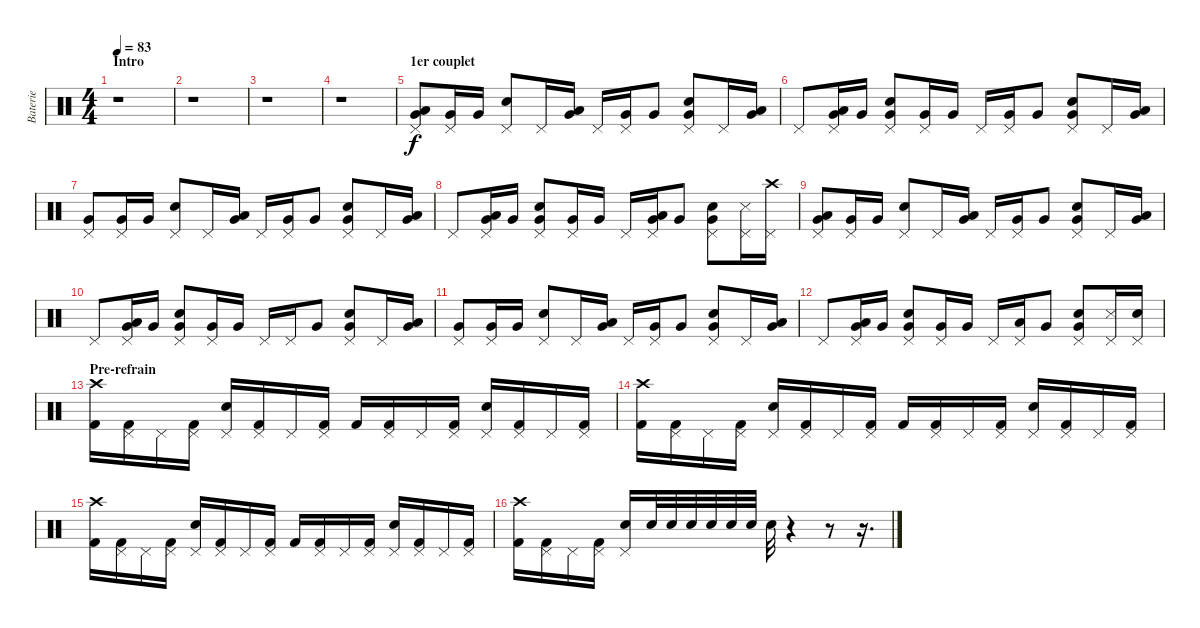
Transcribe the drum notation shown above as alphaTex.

\track ("Baterie" "Baterie") {instrument percussion}
\staff {score}
\articulation defaults
\ts (4 4)
\section ("" "Intro")
\tempo 83
\clef neutral
\ks c
r.1{dy f} |
r.1 |
r.1 |
r.1 |
\section ("" "1er couplet")
("Low Floor Tom (hit)" "Very Low Tom (hit)" "Pedal Hi-Hat (hit)").8 ("Very Low Tom (hit)" "Pedal Hi-Hat (hit)").16 "Very Low Tom (hit)".16 ("Snare (hit) 2" "Pedal Hi-Hat (hit)").8 "Pedal Hi-Hat (hit)".16 ("Low Floor Tom (hit)" "Very Low Tom (hit)").16 "Pedal Hi-Hat (hit)".16 ("Very Low Tom (hit)" "Pedal Hi-Hat (hit)").16 "Very Low Tom (hit)".8 ("Snare (hit) 2" "Very Low Tom (hit)" "Pedal Hi-Hat (hit)").8 "Pedal Hi-Hat (hit)".16 ("Low Floor Tom (hit)" "Very Low Tom (hit)").16 |
"Pedal Hi-Hat (hit)".8 ("Low Floor Tom (hit)" "Very Low Tom (hit)" "Pedal Hi-Hat (hit)").16 "Very Low Tom (hit)".16 ("Snare (hit) 2" "Very Low Tom (hit)" "Pedal Hi-Hat (hit)").8 ("Very Low Tom (hit)" "Pedal Hi-Hat (hit)").16 "Very Low Tom (hit)".16 "Pedal Hi-Hat (hit)".16 ("Very Low Tom (hit)" "Pedal Hi-Hat (hit)").16 "Very Low Tom (hit)".8 ("Snare (hit) 2" "Very Low Tom (hit)" "Pedal Hi-Hat (hit)").8 "Pedal Hi-Hat (hit)".16 ("Low Floor Tom (hit)" "Very Low Tom (hit)").16 |
("Very Low Tom (hit)" "Pedal Hi-Hat (hit)").8 ("Very Low Tom (hit)" "Pedal Hi-Hat (hit)").16 "Very Low Tom (hit)".16 ("Snare (hit) 2" "Pedal Hi-Hat (hit)").8 "Pedal Hi-Hat (hit)".16 ("Low Floor Tom (hit)" "Very Low Tom (hit)").16 "Pedal Hi-Hat (hit)".16 ("Very Low Tom (hit)" "Pedal Hi-Hat (hit)").16 "Very Low Tom (hit)".8 ("Snare (hit) 2" "Very Low Tom (hit)" "Pedal Hi-Hat (hit)").8 "Pedal Hi-Hat (hit)".16 ("Low Floor Tom (hit)" "Very Low Tom (hit)").16 |
"Pedal Hi-Hat (hit)".8 ("Low Floor Tom (hit)" "Very Low Tom (hit)" "Pedal Hi-Hat (hit)").16 "Very Low Tom (hit)".16 ("Snare (hit) 2" "Very Low Tom (hit)" "Pedal Hi-Hat (hit)").8 ("Very Low Tom (hit)" "Pedal Hi-Hat (hit)").16 "Very Low Tom (hit)".16 "Pedal Hi-Hat (hit)".16 ("Low Floor Tom (hit)" "Very Low Tom (hit)" "Pedal Hi-Hat (hit)").16 "Very Low Tom (hit)".8 ("Snare (hit) 2" "Very Low Tom (hit)" "Pedal Hi-Hat (hit)").8 ("Snare (side stick) 3" "Pedal Hi-Hat (hit)").16 ("Crash high (hit)" "Pedal Hi-Hat (hit)").16 |
("Low Floor Tom (hit)" "Very Low Tom (hit)" "Pedal Hi-Hat (hit)").8 ("Very Low Tom (hit)" "Pedal Hi-Hat (hit)").16 "Very Low Tom (hit)".16 ("Snare (hit) 2" "Pedal Hi-Hat (hit)").8 "Pedal Hi-Hat (hit)".16 ("Low Floor Tom (hit)" "Very Low Tom (hit)").16 "Pedal Hi-Hat (hit)".16 ("Very Low Tom (hit)" "Pedal Hi-Hat (hit)").16 "Very Low Tom (hit)".8 ("Snare (hit) 2" "Very Low Tom (hit)" "Pedal Hi-Hat (hit)").8 "Pedal Hi-Hat (hit)".16 ("Low Floor Tom (hit)" "Very Low Tom (hit)").16 |
"Pedal Hi-Hat (hit)".8 ("Low Floor Tom (hit)" "Very Low Tom (hit)" "Pedal Hi-Hat (hit)").16 "Very Low Tom (hit)".16 ("Snare (hit) 2" "Very Low Tom (hit)" "Pedal Hi-Hat (hit)").8 ("Very Low Tom (hit)" "Pedal Hi-Hat (hit)").16 "Very Low Tom (hit)".16 "Pedal Hi-Hat (hit)".16 "Pedal Hi-Hat (hit)".16 "Very Low Tom (hit)".8 ("Snare (hit) 2" "Very Low Tom (hit)" "Pedal Hi-Hat (hit)").8 "Pedal Hi-Hat (hit)".16 ("Low Floor Tom (hit)" "Very Low Tom (hit)").16 |
("Very Low Tom (hit)" "Pedal Hi-Hat (hit)").8 ("Very Low Tom (hit)" "Pedal Hi-Hat (hit)").16 "Very Low Tom (hit)".16 ("Snare (hit) 2" "Pedal Hi-Hat (hit)").8 "Pedal Hi-Hat (hit)".16 ("Low Floor Tom (hit)" "Very Low Tom (hit)").16 "Pedal Hi-Hat (hit)".16 ("Very Low Tom (hit)" "Pedal Hi-Hat (hit)").16 "Very Low Tom (hit)".8 ("Snare (hit) 2" "Very Low Tom (hit)" "Pedal Hi-Hat (hit)").8 "Pedal Hi-Hat (hit)".16 ("Low Floor Tom (hit)" "Very Low Tom (hit)").16 |
"Pedal Hi-Hat (hit)".8 ("Low Floor Tom (hit)" "Very Low Tom (hit)" "Pedal Hi-Hat (hit)").16 "Very Low Tom (hit)".16 ("Snare (hit) 2" "Very Low Tom (hit)" "Pedal Hi-Hat (hit)").8 ("Very Low Tom (hit)" "Pedal Hi-Hat (hit)").16 "Very Low Tom (hit)".16 "Pedal Hi-Hat (hit)".16 ("Low Floor Tom (hit)" "Pedal Hi-Hat (hit)").16 "Very Low Tom (hit)".8 ("Snare (hit) 2" "Very Low Tom (hit)" "Pedal Hi-Hat (hit)").8 ("Snare (side stick) 3" "Pedal Hi-Hat (hit)").16 ("Snare (hit) 2" "Pedal Hi-Hat (hit)").16 |
\section ("" "Pre-refrain")
("Crash high (hit)" "Kick (hit) 2").16 ("Kick (hit) 2" "Pedal Hi-Hat (hit)").16 "Pedal Hi-Hat (hit)".16 ("Kick (hit) 2" "Pedal Hi-Hat (hit)").16 ("Snare (hit) 2" "Pedal Hi-Hat (hit)").16 ("Kick (hit) 2" "Pedal Hi-Hat (hit)").16 "Pedal Hi-Hat (hit)".16 ("Kick (hit) 2" "Pedal Hi-Hat (hit)").16 "Kick (hit) 2".16 ("Kick (hit) 2" "Pedal Hi-Hat (hit)").16 "Pedal Hi-Hat (hit)".16 ("Kick (hit) 2" "Pedal Hi-Hat (hit)").16 ("Snare (hit) 2" "Pedal Hi-Hat (hit)").16 ("Kick (hit) 2" "Pedal Hi-Hat (hit)").16 "Pedal Hi-Hat (hit)".16 ("Kick (hit) 2" "Pedal Hi-Hat (hit)").16 |
("Crash high (hit)" "Kick (hit) 2").16 ("Kick (hit) 2" "Pedal Hi-Hat (hit)").16 "Pedal Hi-Hat (hit)".16 ("Kick (hit) 2" "Pedal Hi-Hat (hit)").16 ("Snare (hit) 2" "Pedal Hi-Hat (hit)").16 ("Kick (hit) 2" "Pedal Hi-Hat (hit)").16 "Pedal Hi-Hat (hit)".16 ("Kick (hit) 2" "Pedal Hi-Hat (hit)").16 "Kick (hit) 2".16 ("Kick (hit) 2" "Pedal Hi-Hat (hit)").16 "Pedal Hi-Hat (hit)".16 ("Kick (hit) 2" "Pedal Hi-Hat (hit)").16 ("Snare (hit) 2" "Pedal Hi-Hat (hit)").16 ("Kick (hit) 2" "Pedal Hi-Hat (hit)").16 "Pedal Hi-Hat (hit)".16 ("Kick (hit) 2" "Pedal Hi-Hat (hit)").16 |
("Crash high (hit)" "Kick (hit) 2").16 ("Kick (hit) 2" "Pedal Hi-Hat (hit)").16 "Pedal Hi-Hat (hit)".16 ("Kick (hit) 2" "Pedal Hi-Hat (hit)").16 ("Snare (hit) 2" "Pedal Hi-Hat (hit)").16 ("Kick (hit) 2" "Pedal Hi-Hat (hit)").16 "Pedal Hi-Hat (hit)".16 ("Kick (hit) 2" "Pedal Hi-Hat (hit)").16 "Kick (hit) 2".16 ("Kick (hit) 2" "Pedal Hi-Hat (hit)").16 "Pedal Hi-Hat (hit)".16 ("Kick (hit) 2" "Pedal Hi-Hat (hit)").16 ("Snare (hit) 2" "Pedal Hi-Hat (hit)").16 ("Kick (hit) 2" "Pedal Hi-Hat (hit)").16 "Pedal Hi-Hat (hit)".16 ("Kick (hit) 2" "Pedal Hi-Hat (hit)").16 |
("Crash high (hit)" "Kick (hit) 2").16 ("Kick (hit) 2" "Pedal Hi-Hat (hit)").16 "Pedal Hi-Hat (hit)".16 ("Kick (hit) 2" "Pedal Hi-Hat (hit)").16 ("Snare (hit) 2" "Pedal Hi-Hat (hit)").16 "Snare (hit) 2".32 "Snare (hit) 2".32 "Snare (hit) 2".32 "Snare (hit) 2".32 "Snare (hit) 2".32 "Snare (hit) 2".32 "Snare (hit) 2".32 r.4 r.8 r.16{d}
